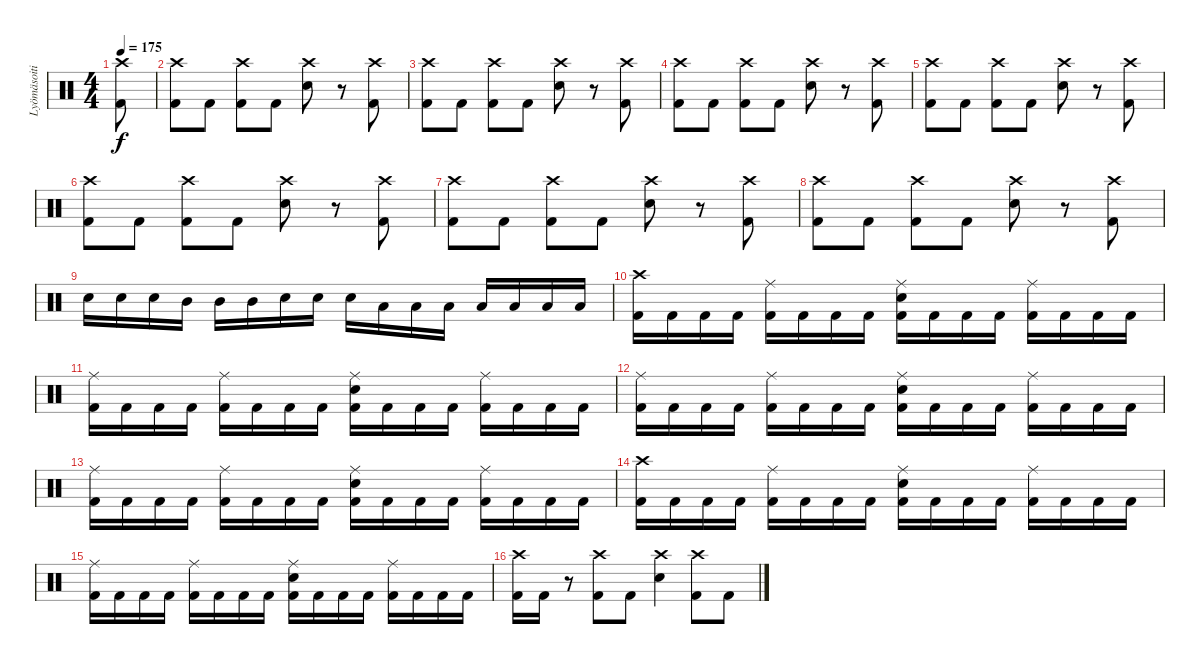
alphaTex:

\track ("Lyömäsoitin" "Lyömäsoiti") {instrument percussion}
\staff {score}
\articulation defaults
\ts (4 4)
\tempo 175
\clef neutral
\ks c
("Kick (hit) 2" "Crash high (hit)").8{dy f} |
("Kick (hit) 2" "Crash high (hit)").8 "Kick (hit) 2".8 ("Kick (hit) 2" "Crash high (hit)").8 "Kick (hit) 2".8 ("Electric Snare (hit)" "Crash high (hit)").8 r.8 ("Kick (hit) 2" "Crash high (hit)").8 |
("Kick (hit) 2" "Crash high (hit)").8 "Kick (hit) 2".8 ("Kick (hit) 2" "Crash high (hit)").8 "Kick (hit) 2".8 ("Electric Snare (hit)" "Crash high (hit)").8 r.8 ("Kick (hit) 2" "Crash high (hit)").8 |
("Kick (hit) 2" "Crash high (hit)").8 "Kick (hit) 2".8 ("Kick (hit) 2" "Crash high (hit)").8 "Kick (hit) 2".8 ("Electric Snare (hit)" "Crash high (hit)").8 r.8 ("Kick (hit) 2" "Crash high (hit)").8 |
("Kick (hit) 2" "Crash high (hit)").8 "Kick (hit) 2".8 ("Kick (hit) 2" "Crash high (hit)").8 "Kick (hit) 2".8 ("Electric Snare (hit)" "Crash high (hit)").8 r.8 ("Kick (hit) 2" "Crash high (hit)").8 |
("Kick (hit) 2" "Crash high (hit)").8 "Kick (hit) 2".8 ("Kick (hit) 2" "Crash high (hit)").8 "Kick (hit) 2".8 ("Electric Snare (hit)" "Crash high (hit)").8 r.8 ("Kick (hit) 2" "Crash high (hit)").8 |
("Kick (hit) 2" "Crash high (hit)").8 "Kick (hit) 2".8 ("Kick (hit) 2" "Crash high (hit)").8 "Kick (hit) 2".8 ("Electric Snare (hit)" "Crash high (hit)").8 r.8 ("Kick (hit) 2" "Crash high (hit)").8 |
("Kick (hit) 2" "Crash high (hit)").8 "Kick (hit) 2".8 ("Kick (hit) 2" "Crash high (hit)").8 "Kick (hit) 2".8 ("Electric Snare (hit)" "Crash high (hit)").8 r.8 ("Kick (hit) 2" "Crash high (hit)").8 |
"Electric Snare (hit)".16 "Electric Snare (hit)".16 "Electric Snare (hit)".16 "Mid Tom (hit)".16 "Mid Tom (hit)".16 "Mid Tom (hit)".16 "Electric Snare (hit)".16 "Electric Snare (hit)".16 "Electric Snare (hit)".16 "Low Tom (hit)".16 "Low Tom (hit)".16 "Low Tom (hit)".16 "Low Floor Tom (hit)".16 "Low Floor Tom (hit)".16 "Low Floor Tom (hit)".16 "Low Floor Tom (hit)".16 |
("Kick (hit) 2" "Crash high (hit)").16 "Kick (hit) 2".16 "Kick (hit) 2".16 "Kick (hit) 2".16 ("Kick (hit) 2" "Ride (middle)").16 "Kick (hit) 2".16 "Kick (hit) 2".16 "Kick (hit) 2".16 ("Kick (hit) 2" "Electric Snare (hit)" "Ride (middle)").16 "Kick (hit) 2".16 "Kick (hit) 2".16 "Kick (hit) 2".16 ("Kick (hit) 2" "Ride (middle)").16 "Kick (hit) 2".16 "Kick (hit) 2".16 "Kick (hit) 2".16 |
("Kick (hit) 2" "Ride (middle)").16 "Kick (hit) 2".16 "Kick (hit) 2".16 "Kick (hit) 2".16 ("Kick (hit) 2" "Ride (middle)").16 "Kick (hit) 2".16 "Kick (hit) 2".16 "Kick (hit) 2".16 ("Kick (hit) 2" "Electric Snare (hit)" "Ride (middle)").16 "Kick (hit) 2".16 "Kick (hit) 2".16 "Kick (hit) 2".16 ("Kick (hit) 2" "Ride (middle)").16 "Kick (hit) 2".16 "Kick (hit) 2".16 "Kick (hit) 2".16 |
("Kick (hit) 2" "Ride (middle)").16 "Kick (hit) 2".16 "Kick (hit) 2".16 "Kick (hit) 2".16 ("Kick (hit) 2" "Ride (middle)").16 "Kick (hit) 2".16 "Kick (hit) 2".16 "Kick (hit) 2".16 ("Kick (hit) 2" "Electric Snare (hit)" "Ride (middle)").16 "Kick (hit) 2".16 "Kick (hit) 2".16 "Kick (hit) 2".16 ("Kick (hit) 2" "Ride (middle)").16 "Kick (hit) 2".16 "Kick (hit) 2".16 "Kick (hit) 2".16 |
("Kick (hit) 2" "Ride (middle)").16 "Kick (hit) 2".16 "Kick (hit) 2".16 "Kick (hit) 2".16 ("Kick (hit) 2" "Ride (middle)").16 "Kick (hit) 2".16 "Kick (hit) 2".16 "Kick (hit) 2".16 ("Kick (hit) 2" "Electric Snare (hit)" "Ride (middle)").16 "Kick (hit) 2".16 "Kick (hit) 2".16 "Kick (hit) 2".16 ("Kick (hit) 2" "Ride (middle)").16 "Kick (hit) 2".16 "Kick (hit) 2".16 "Kick (hit) 2".16 |
("Kick (hit) 2" "Crash high (hit)").16 "Kick (hit) 2".16 "Kick (hit) 2".16 "Kick (hit) 2".16 ("Kick (hit) 2" "Ride (middle)").16 "Kick (hit) 2".16 "Kick (hit) 2".16 "Kick (hit) 2".16 ("Kick (hit) 2" "Electric Snare (hit)" "Ride (middle)").16 "Kick (hit) 2".16 "Kick (hit) 2".16 "Kick (hit) 2".16 ("Kick (hit) 2" "Ride (middle)").16 "Kick (hit) 2".16 "Kick (hit) 2".16 "Kick (hit) 2".16 |
("Kick (hit) 2" "Ride (middle)").16 "Kick (hit) 2".16 "Kick (hit) 2".16 "Kick (hit) 2".16 ("Kick (hit) 2" "Ride (middle)").16 "Kick (hit) 2".16 "Kick (hit) 2".16 "Kick (hit) 2".16 ("Kick (hit) 2" "Electric Snare (hit)" "Ride (middle)").16 "Kick (hit) 2".16 "Kick (hit) 2".16 "Kick (hit) 2".16 ("Kick (hit) 2" "Ride (middle)").16 "Kick (hit) 2".16 "Kick (hit) 2".16 "Kick (hit) 2".16 |
("Kick (hit) 2" "Crash high (hit)").16 "Kick (hit) 2".16 r.8 ("Kick (hit) 2" "Crash high (hit)").8 "Kick (hit) 2".8 ("Electric Snare (hit)" "Crash high (hit)").4 ("Kick (hit) 2" "Crash high (hit)").8 "Kick (hit) 2".8
